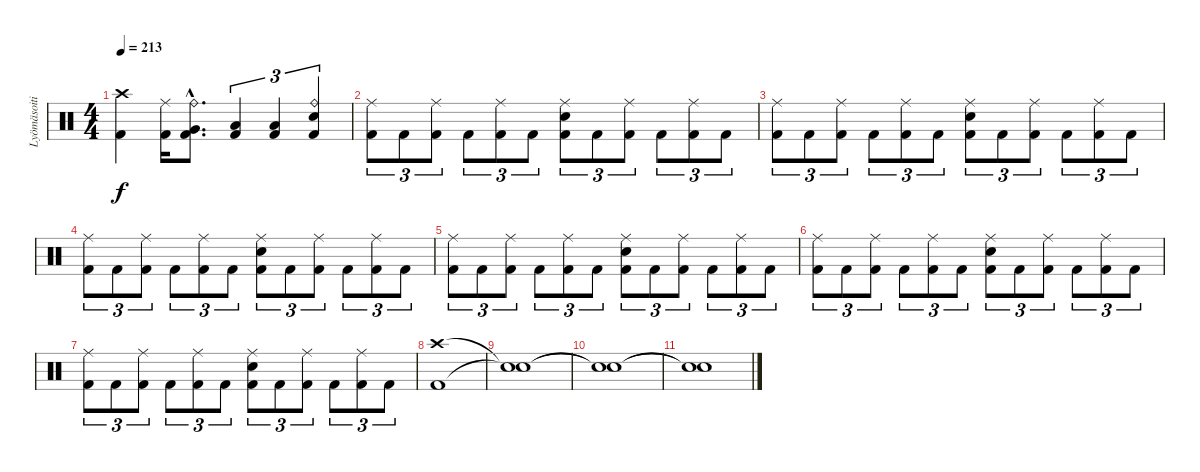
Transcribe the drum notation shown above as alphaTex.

\track ("Lyömäsoitin" "Lyömäsoiti") {instrument percussion}
\staff {score}
\articulation defaults
\ts (4 4)
\tempo 213
\clef neutral
\ks c
("Crash high (hit)" "Kick (hit) 2").4{dy f} ("Ride (middle)" "Kick (hit) 2").16 ("Ride (bell)"{hac} "Very Low Tom (hit)"{hac} "Kick (hit) 2"{hac}).8{d} ("Low Floor Tom (hit)" "Kick (hit) 2").4{tu (3 2)} ("Low Floor Tom (hit)" "Kick (hit) 2").4{tu (3 2)} ("Ride (bell)" "Electric Snare (hit)" "Kick (hit) 2").4{tu (3 2)} |
("Ride (middle)" "Kick (hit) 2").8{tu (3 2)} "Kick (hit) 2".8{tu (3 2)} ("Ride (middle)" "Kick (hit) 2").8{tu (3 2)} "Kick (hit) 2".8{tu (3 2)} ("Ride (middle)" "Kick (hit) 2").8{tu (3 2)} "Kick (hit) 2".8{tu (3 2)} ("Ride (middle)" "Electric Snare (hit)" "Kick (hit) 2").8{tu (3 2)} "Kick (hit) 2".8{tu (3 2)} ("Ride (middle)" "Kick (hit) 2").8{tu (3 2)} "Kick (hit) 2".8{tu (3 2)} ("Ride (middle)" "Kick (hit) 2").8{tu (3 2)} "Kick (hit) 2".8{tu (3 2)} |
("Ride (middle)" "Kick (hit) 2").8{tu (3 2)} "Kick (hit) 2".8{tu (3 2)} ("Ride (middle)" "Kick (hit) 2").8{tu (3 2)} "Kick (hit) 2".8{tu (3 2)} ("Ride (middle)" "Kick (hit) 2").8{tu (3 2)} "Kick (hit) 2".8{tu (3 2)} ("Ride (middle)" "Electric Snare (hit)" "Kick (hit) 2").8{tu (3 2)} "Kick (hit) 2".8{tu (3 2)} ("Ride (middle)" "Kick (hit) 2").8{tu (3 2)} "Kick (hit) 2".8{tu (3 2)} ("Ride (middle)" "Kick (hit) 2").8{tu (3 2)} "Kick (hit) 2".8{tu (3 2)} |
("Ride (middle)" "Kick (hit) 2").8{tu (3 2)} "Kick (hit) 2".8{tu (3 2)} ("Ride (middle)" "Kick (hit) 2").8{tu (3 2)} "Kick (hit) 2".8{tu (3 2)} ("Ride (middle)" "Kick (hit) 2").8{tu (3 2)} "Kick (hit) 2".8{tu (3 2)} ("Ride (middle)" "Electric Snare (hit)" "Kick (hit) 2").8{tu (3 2)} "Kick (hit) 2".8{tu (3 2)} ("Ride (middle)" "Kick (hit) 2").8{tu (3 2)} "Kick (hit) 2".8{tu (3 2)} ("Ride (middle)" "Kick (hit) 2").8{tu (3 2)} "Kick (hit) 2".8{tu (3 2)} |
("Ride (middle)" "Kick (hit) 2").8{tu (3 2)} "Kick (hit) 2".8{tu (3 2)} ("Ride (middle)" "Kick (hit) 2").8{tu (3 2)} "Kick (hit) 2".8{tu (3 2)} ("Ride (middle)" "Kick (hit) 2").8{tu (3 2)} "Kick (hit) 2".8{tu (3 2)} ("Ride (middle)" "Electric Snare (hit)" "Kick (hit) 2").8{tu (3 2)} "Kick (hit) 2".8{tu (3 2)} ("Ride (middle)" "Kick (hit) 2").8{tu (3 2)} "Kick (hit) 2".8{tu (3 2)} ("Ride (middle)" "Kick (hit) 2").8{tu (3 2)} "Kick (hit) 2".8{tu (3 2)} |
("Ride (middle)" "Kick (hit) 2").8{tu (3 2)} "Kick (hit) 2".8{tu (3 2)} ("Ride (middle)" "Kick (hit) 2").8{tu (3 2)} "Kick (hit) 2".8{tu (3 2)} ("Ride (middle)" "Kick (hit) 2").8{tu (3 2)} "Kick (hit) 2".8{tu (3 2)} ("Ride (middle)" "Electric Snare (hit)" "Kick (hit) 2").8{tu (3 2)} "Kick (hit) 2".8{tu (3 2)} ("Ride (middle)" "Kick (hit) 2").8{tu (3 2)} "Kick (hit) 2".8{tu (3 2)} ("Ride (middle)" "Kick (hit) 2").8{tu (3 2)} "Kick (hit) 2".8{tu (3 2)} |
("Ride (middle)" "Kick (hit) 2").8{tu (3 2)} "Kick (hit) 2".8{tu (3 2)} ("Ride (middle)" "Kick (hit) 2").8{tu (3 2)} "Kick (hit) 2".8{tu (3 2)} ("Ride (middle)" "Kick (hit) 2").8{tu (3 2)} "Kick (hit) 2".8{tu (3 2)} ("Ride (middle)" "Electric Snare (hit)" "Kick (hit) 2").8{tu (3 2)} "Kick (hit) 2".8{tu (3 2)} ("Ride (middle)" "Kick (hit) 2").8{tu (3 2)} "Kick (hit) 2".8{tu (3 2)} ("Ride (middle)" "Kick (hit) 2").8{tu (3 2)} "Kick (hit) 2".8{tu (3 2)} |
("Crash high (hit)" "Kick (hit) 2").1 |
("Snare (hit)"{t} "Snare (hit)"{t}).1 |
("Snare (hit)"{t} "Snare (hit)"{t}).1 |
("Snare (hit)"{t} "Snare (hit)"{t}).1
